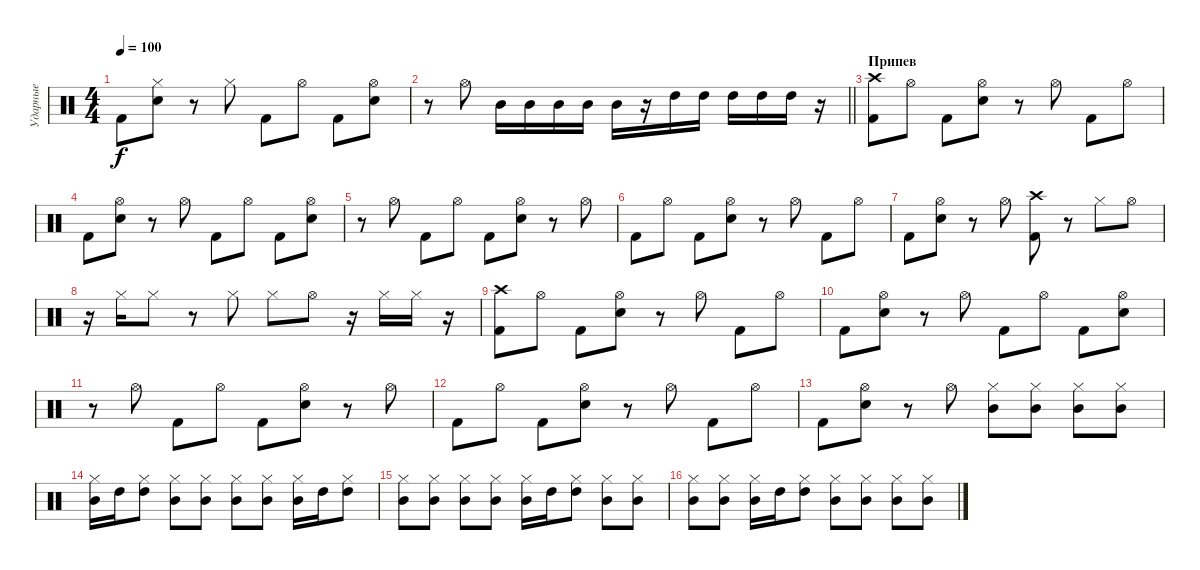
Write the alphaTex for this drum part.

\track ("Ударные" "Ударные") {instrument percussion}
\staff {score}
\articulation defaults
\ts (4 4)
\tempo 100
\clef neutral
\ks c "Kick (hit) 2".8{dy f}
("Snare (hit) 2" "Hi-Hat (closed)").8 r.8 "Hi-Hat (closed)".8 "Kick (hit) 2".8 "Hi-Hat (open)".8 "Kick (hit) 2".8 ("Snare (hit) 2" "Hi-Hat (open)").8 |
\barLineRight lightlight
r.8 "Hi-Hat (open)".8 "Mid Tom (hit)".16 "Mid Tom (hit)".16 "Mid Tom (hit)".16 "Mid Tom (hit)".16 "Mid Tom (hit)".16 r.16 "High Tom (hit)".16 "High Tom (hit)".16 "High Tom (hit)".16 "High Tom (hit)".16 "High Tom (hit)".16 r.16 |
\section ("" "Припев")
("Kick (hit) 2" "Crash high (hit)").8 "Hi-Hat (open)".8 "Kick (hit) 2".8 ("Snare (hit) 2" "Hi-Hat (open)").8 r.8 "Hi-Hat (open)".8 "Kick (hit) 2".8 "Hi-Hat (open)".8 |
"Kick (hit) 2".8 ("Snare (hit) 2" "Hi-Hat (open)").8 r.8 "Hi-Hat (open)".8 "Kick (hit) 2".8 "Hi-Hat (open)".8 "Kick (hit) 2".8 ("Snare (hit) 2" "Hi-Hat (open)").8 |
r.8 "Hi-Hat (open)".8 "Kick (hit) 2".8 "Hi-Hat (open)".8 "Kick (hit) 2".8 ("Snare (hit) 2" "Hi-Hat (open)").8 r.8 "Hi-Hat (open)".8 |
"Kick (hit) 2".8 "Hi-Hat (open)".8 "Kick (hit) 2".8 ("Snare (hit) 2" "Hi-Hat (open)").8 r.8 "Hi-Hat (open)".8 "Kick (hit) 2".8 "Hi-Hat (open)".8 |
"Kick (hit) 2".8 ("Snare (hit) 2" "Hi-Hat (open)").8 r.8 "Hi-Hat (open)".8 ("Kick (hit) 2" "Crash high (hit)").8 r.8 "Hi-Hat (closed)".8 "Hi-Hat (open)".8 |
r.16 "Hi-Hat (closed)".16 "Hi-Hat (closed)".8 r.8 "Hi-Hat (closed)".8 "Hi-Hat (closed)".8 "Hi-Hat (open)".8 r.16 "Hi-Hat (closed)".16 "Hi-Hat (closed)".16 r.16 |
("Kick (hit) 2" "Crash high (hit)").8 "Hi-Hat (open)".8 "Kick (hit) 2".8 ("Snare (hit) 2" "Hi-Hat (open)").8 r.8 "Hi-Hat (open)".8 "Kick (hit) 2".8 "Hi-Hat (open)".8 |
"Kick (hit) 2".8 ("Snare (hit) 2" "Hi-Hat (open)").8 r.8 "Hi-Hat (open)".8 "Kick (hit) 2".8 "Hi-Hat (open)".8 "Kick (hit) 2".8 ("Snare (hit) 2" "Hi-Hat (open)").8 |
r.8 "Hi-Hat (open)".8 "Kick (hit) 2".8 "Hi-Hat (open)".8 "Kick (hit) 2".8 ("Snare (hit) 2" "Hi-Hat (open)").8 r.8 "Hi-Hat (open)".8 |
"Kick (hit) 2".8 "Hi-Hat (open)".8 "Kick (hit) 2".8 ("Snare (hit) 2" "Hi-Hat (open)").8 r.8 "Hi-Hat (open)".8 "Kick (hit) 2".8 "Hi-Hat (open)".8 |
"Kick (hit) 2".8 ("Snare (hit) 2" "Hi-Hat (open)").8 r.8 "Hi-Hat (open)".8 ("Mid Tom (hit)" "Hi-Hat (closed)").8 ("Mid Tom (hit)" "Hi-Hat (closed)").8 ("Mid Tom (hit)" "Hi-Hat (closed)").8 ("Mid Tom (hit)" "Hi-Hat (closed)").8 |
("Mid Tom (hit)" "Hi-Hat (closed)").16 "High Tom (hit)".16 ("High Tom (hit)" "Hi-Hat (closed)").8 ("Mid Tom (hit)" "Hi-Hat (closed)").8 ("Mid Tom (hit)" "Hi-Hat (closed)").8 ("Mid Tom (hit)" "Hi-Hat (closed)").8 ("Mid Tom (hit)" "Hi-Hat (closed)").8 ("Mid Tom (hit)" "Hi-Hat (closed)").16 "High Tom (hit)".16 ("High Tom (hit)" "Hi-Hat (closed)").8 |
("Mid Tom (hit)" "Hi-Hat (closed)").8 ("Mid Tom (hit)" "Hi-Hat (closed)").8 ("Mid Tom (hit)" "Hi-Hat (closed)").8 ("Mid Tom (hit)" "Hi-Hat (closed)").8 ("Mid Tom (hit)" "Hi-Hat (closed)").16 "High Tom (hit)".16 ("High Tom (hit)" "Hi-Hat (closed)").8 ("Mid Tom (hit)" "Hi-Hat (closed)").8 ("Mid Tom (hit)" "Hi-Hat (closed)").8 |
("Mid Tom (hit)" "Hi-Hat (closed)").8 ("Mid Tom (hit)" "Hi-Hat (closed)").8 ("Mid Tom (hit)" "Hi-Hat (closed)").16 "High Tom (hit)".16 ("High Tom (hit)" "Hi-Hat (closed)").8 ("Mid Tom (hit)" "Hi-Hat (closed)").8 ("Mid Tom (hit)" "Hi-Hat (closed)").8 ("Mid Tom (hit)" "Hi-Hat (closed)").8 ("Mid Tom (hit)" "Hi-Hat (closed)").8
